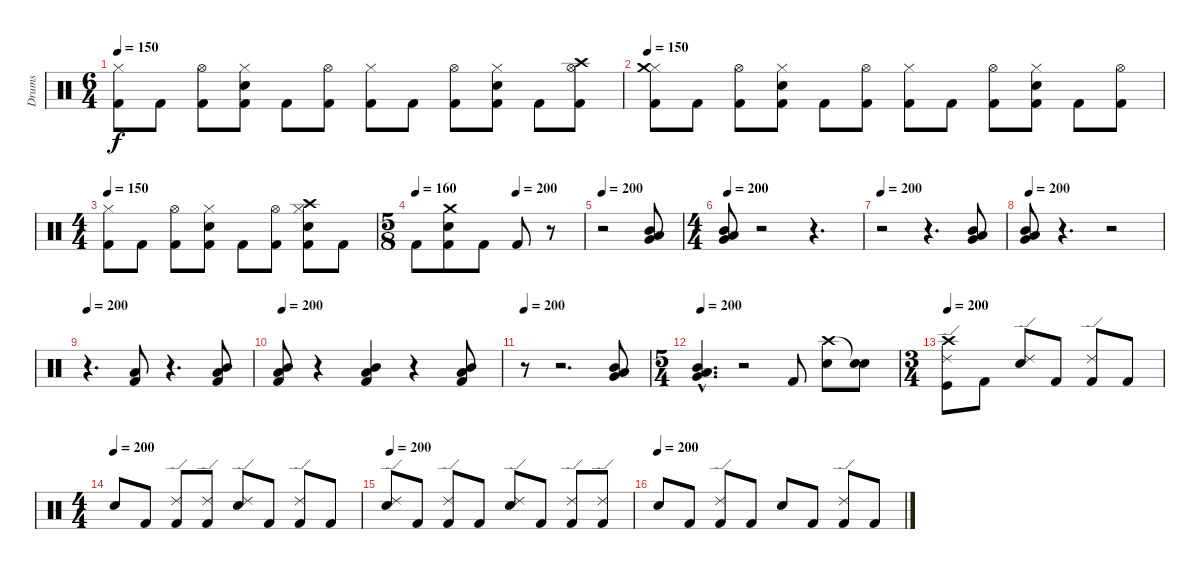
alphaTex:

\track ("Drums" "Drums") {instrument percussion}
\staff {score}
\articulation defaults
\ts (6 4)
\tempo 150
\clef neutral
\ks c
("Kick (hit) 2" "Hi-Hat (closed)").8{dy f} "Kick (hit) 2".8 ("Kick (hit) 2" "Hi-Hat (open)").8 ("Kick (hit) 2" "Electric Snare (hit)" "Hi-Hat (closed)").8 "Kick (hit) 2".8 ("Kick (hit) 2" "Hi-Hat (open)").8 ("Kick (hit) 2" "Hi-Hat (closed)").8 "Kick (hit) 2".8 ("Kick (hit) 2" "Hi-Hat (open)").8 ("Kick (hit) 2" "Electric Snare (hit)" "Hi-Hat (closed)").8 "Kick (hit) 2".8 ("Kick (hit) 2" "Hi-Hat (open)" "Crash high (hit)").8 |
\tempo 150
("Kick (hit) 2" "Hi-Hat (closed)" "Crash medium (hit)").8 "Kick (hit) 2".8 ("Kick (hit) 2" "Hi-Hat (open)").8 ("Kick (hit) 2" "Electric Snare (hit)" "Hi-Hat (closed)").8 "Kick (hit) 2".8 ("Kick (hit) 2" "Hi-Hat (open)").8 ("Kick (hit) 2" "Hi-Hat (closed)").8 "Kick (hit) 2".8 ("Kick (hit) 2" "Hi-Hat (open)").8 ("Kick (hit) 2" "Electric Snare (hit)" "Hi-Hat (closed)").8 "Kick (hit) 2".8 ("Kick (hit) 2" "Hi-Hat (open)").8 |
\ts (4 4)
\tempo 150
("Kick (hit) 2" "Hi-Hat (closed)").8 "Kick (hit) 2".8 ("Kick (hit) 2" "Hi-Hat (open)").8 ("Kick (hit) 2" "Electric Snare (hit)" "Hi-Hat (closed)").8 "Kick (hit) 2".8 ("Kick (hit) 2" "Hi-Hat (open)").8 ("Kick (hit) 2" "Electric Snare (hit)" "Hi-Hat (closed)" "Crash high (hit)").8 "Kick (hit) 2".8 |
\ts (5 8)
\tempo 160
\tempo (200 0.6)
"Kick (hit) 2".8 ("Kick (hit) 2" "Electric Snare (hit)" "Crash medium (hit)").8 "Kick (hit) 2".8 "Kick (hit) 2".8 r.8 |
\tempo 200
r.2 ("Low Tom (hit)" "Very Low Tom (hit)" "Mid Tom (hit)").8 |
\ts (4 4)
\tempo 200
("Low Tom (hit)" "Very Low Tom (hit)" "Mid Tom (hit)").8 r.2 r.4{d} |
\tempo 200
r.2 r.4{d} ("Low Tom (hit)" "Very Low Tom (hit)" "Mid Tom (hit)").8 |
\tempo 200
("Low Tom (hit)" "Very Low Tom (hit)" "Mid Tom (hit)").8 r.4{d} r.2 |
\tempo 200
r.4{d} ("Kick (hit) 2" "Low Tom (hit)").8 r.4{d} ("Kick (hit) 2" "Low Tom (hit)" "Mid Tom (hit)").8 |
\tempo 200
("Kick (hit) 2" "Low Tom (hit)" "Mid Tom (hit)").8 r.4 ("Kick (hit) 2" "Low Tom (hit)" "Mid Tom (hit)").4 r.4 ("Kick (hit) 2" "Low Tom (hit)" "Mid Tom (hit)").8 |
\tempo 200
r.8 r.2{d} ("Low Tom (hit)" "Very Low Tom (hit)" "Mid Tom (hit)").8 |
\ts (5 4)
\tempo 200
("Low Tom (hit)"{hac} "Very Low Tom (hit)"{hac} "Mid Tom (hit)"{hac}).4{d} r.2 "Kick (hit) 2".8 ("Electric Snare (hit)" "Crash high (hit)").8 ("Electric Snare (hit)" "Snare (hit)"{t}).8 |
\ts (3 4)
\tempo 200
("Kick (hit)" "Ride (edge) 2" "Crash high (hit)").8 "Kick (hit) 2".8 ("Electric Snare (hit)" "Ride (edge) 2").8 "Kick (hit) 2".8 ("Kick (hit) 2" "Ride (edge) 2").8 "Kick (hit) 2".8 |
\ts (4 4)
\tempo (200)
"Electric Snare (hit)".8 "Kick (hit) 2".8 ("Kick (hit) 2" "Ride (edge) 2").8 ("Kick (hit) 2" "Ride (edge) 2").8 ("Electric Snare (hit)" "Ride (edge) 2").8 "Kick (hit) 2".8 ("Kick (hit) 2" "Ride (edge) 2").8 "Kick (hit) 2".8 |
\tempo 200
("Electric Snare (hit)" "Ride (edge) 2").8 "Kick (hit) 2".8 ("Kick (hit) 2" "Ride (edge) 2").8 "Kick (hit) 2".8 ("Electric Snare (hit)" "Ride (edge) 2").8 "Kick (hit) 2".8 ("Kick (hit) 2" "Ride (edge) 2").8 ("Kick (hit) 2" "Ride (edge) 2").8 |
\tempo (200)
"Electric Snare (hit)".8 "Kick (hit) 2".8 ("Kick (hit) 2" "Ride (edge) 2").8 "Kick (hit) 2".8 "Electric Snare (hit)".8 "Kick (hit) 2".8 ("Kick (hit) 2" "Ride (edge) 2").8 "Kick (hit) 2".8
